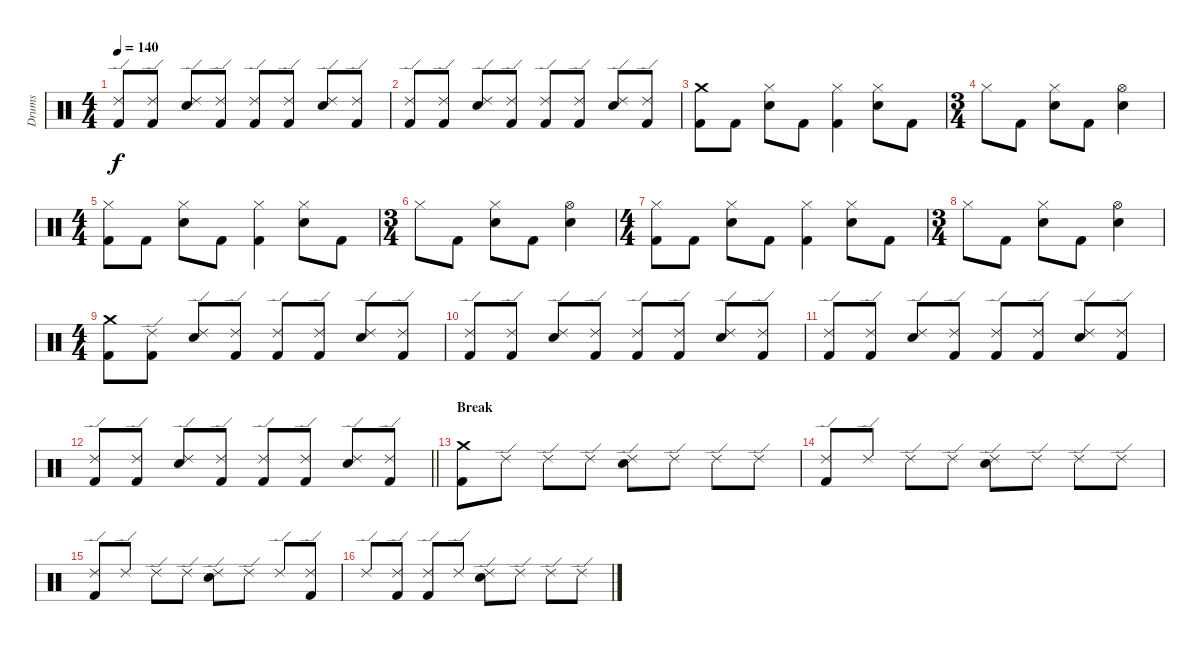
\track ("Drums" "Drums") {instrument percussion}
\staff {score}
\articulation defaults
\ts (4 4)
\tempo 140
\clef neutral
\ks c
("Ride (edge) 2" "Kick (hit) 2").8{dy f} ("Ride (edge) 2" "Kick (hit) 2").8 ("Ride (edge) 2" "Electric Snare (hit)").8 ("Ride (edge) 2" "Kick (hit) 2").8 ("Ride (edge) 2" "Kick (hit) 2").8 ("Ride (edge) 2" "Kick (hit) 2").8 ("Ride (edge) 2" "Electric Snare (hit)").8 ("Ride (edge) 2" "Kick (hit) 2").8 |
("Ride (edge) 2" "Kick (hit) 2").8 ("Ride (edge) 2" "Kick (hit) 2").8 ("Ride (edge) 2" "Electric Snare (hit)").8 ("Ride (edge) 2" "Kick (hit) 2").8 ("Ride (edge) 2" "Kick (hit) 2").8 ("Ride (edge) 2" "Kick (hit) 2").8 ("Ride (edge) 2" "Electric Snare (hit)").8 ("Ride (edge) 2" "Kick (hit) 2").8 |
("Crash medium (hit)" "Kick (hit) 2").8 "Kick (hit) 2".8 ("Hi-Hat (closed)" "Electric Snare (hit)").8 "Kick (hit) 2".8 ("Hi-Hat (closed)" "Kick (hit) 2").4 ("Hi-Hat (closed)" "Electric Snare (hit)").8 "Kick (hit) 2".8 |
\ts (3 4)
"Hi-Hat (closed)".8 "Kick (hit) 2".8 ("Hi-Hat (closed)" "Electric Snare (hit)").8 "Kick (hit) 2".8 ("Hi-Hat (open)" "Electric Snare (hit)").4 |
\ts (4 4)
("Hi-Hat (closed)" "Kick (hit) 2").8 "Kick (hit) 2".8 ("Hi-Hat (closed)" "Electric Snare (hit)").8 "Kick (hit) 2".8 ("Hi-Hat (closed)" "Kick (hit) 2").4 ("Hi-Hat (closed)" "Electric Snare (hit)").8 "Kick (hit) 2".8 |
\ts (3 4)
"Hi-Hat (closed)".8 "Kick (hit) 2".8 ("Hi-Hat (closed)" "Electric Snare (hit)").8 "Kick (hit) 2".8 ("Hi-Hat (open)" "Electric Snare (hit)").4 |
\ts (4 4)
("Hi-Hat (closed)" "Kick (hit) 2").8 "Kick (hit) 2".8 ("Hi-Hat (closed)" "Electric Snare (hit)").8 "Kick (hit) 2".8 ("Hi-Hat (closed)" "Kick (hit) 2").4 ("Hi-Hat (closed)" "Electric Snare (hit)").8 "Kick (hit) 2".8 |
\ts (3 4)
"Hi-Hat (closed)".8 "Kick (hit) 2".8 ("Hi-Hat (closed)" "Electric Snare (hit)").8 "Kick (hit) 2".8 ("Hi-Hat (open)" "Electric Snare (hit)").4 |
\ts (4 4)
("Crash medium (hit)" "Kick (hit) 2").8 ("Ride (edge) 2" "Kick (hit) 2").8 ("Ride (edge) 2" "Electric Snare (hit)").8 ("Ride (edge) 2" "Kick (hit) 2").8 ("Ride (edge) 2" "Kick (hit) 2").8 ("Ride (edge) 2" "Kick (hit) 2").8 ("Ride (edge) 2" "Electric Snare (hit)").8 ("Ride (edge) 2" "Kick (hit) 2").8 |
("Ride (edge) 2" "Kick (hit) 2").8 ("Ride (edge) 2" "Kick (hit) 2").8 ("Ride (edge) 2" "Electric Snare (hit)").8 ("Ride (edge) 2" "Kick (hit) 2").8 ("Ride (edge) 2" "Kick (hit) 2").8 ("Ride (edge) 2" "Kick (hit) 2").8 ("Ride (edge) 2" "Electric Snare (hit)").8 ("Ride (edge) 2" "Kick (hit) 2").8 |
("Ride (edge) 2" "Kick (hit) 2").8 ("Ride (edge) 2" "Kick (hit) 2").8 ("Ride (edge) 2" "Electric Snare (hit)").8 ("Ride (edge) 2" "Kick (hit) 2").8 ("Ride (edge) 2" "Kick (hit) 2").8 ("Ride (edge) 2" "Kick (hit) 2").8 ("Ride (edge) 2" "Electric Snare (hit)").8 ("Ride (edge) 2" "Kick (hit) 2").8 |
\barLineRight lightlight
("Ride (edge) 2" "Kick (hit) 2").8 ("Ride (edge) 2" "Kick (hit) 2").8 ("Ride (edge) 2" "Electric Snare (hit)").8 ("Ride (edge) 2" "Kick (hit) 2").8 ("Ride (edge) 2" "Kick (hit) 2").8 ("Ride (edge) 2" "Kick (hit) 2").8 ("Ride (edge) 2" "Electric Snare (hit)").8 ("Ride (edge) 2" "Kick (hit) 2").8 |
\section ("" "Break")
("Crash medium (hit)" "Kick (hit) 2").8 "Ride (edge) 2".8 "Ride (edge) 2".8 "Ride (edge) 2".8 ("Ride (edge) 2" "Electric Snare (hit)").8 "Ride (edge) 2".8 "Ride (edge) 2".8 "Ride (edge) 2".8 |
("Ride (edge) 2" "Kick (hit) 2").8 "Ride (edge) 2".8 "Ride (edge) 2".8 "Ride (edge) 2".8 ("Ride (edge) 2" "Electric Snare (hit)").8 "Ride (edge) 2".8 "Ride (edge) 2".8 "Ride (edge) 2".8 |
("Ride (edge) 2" "Kick (hit) 2").8 "Ride (edge) 2".8 "Ride (edge) 2".8 "Ride (edge) 2".8 ("Ride (edge) 2" "Electric Snare (hit)").8 "Ride (edge) 2".8 "Ride (edge) 2".8 ("Ride (edge) 2" "Kick (hit) 2").8 |
"Ride (edge) 2".8 ("Ride (edge) 2" "Kick (hit) 2").8 ("Ride (edge) 2" "Kick (hit) 2").8 "Ride (edge) 2".8 ("Ride (edge) 2" "Electric Snare (hit)").8 "Ride (edge) 2".8 "Ride (edge) 2".8 "Ride (edge) 2".8
